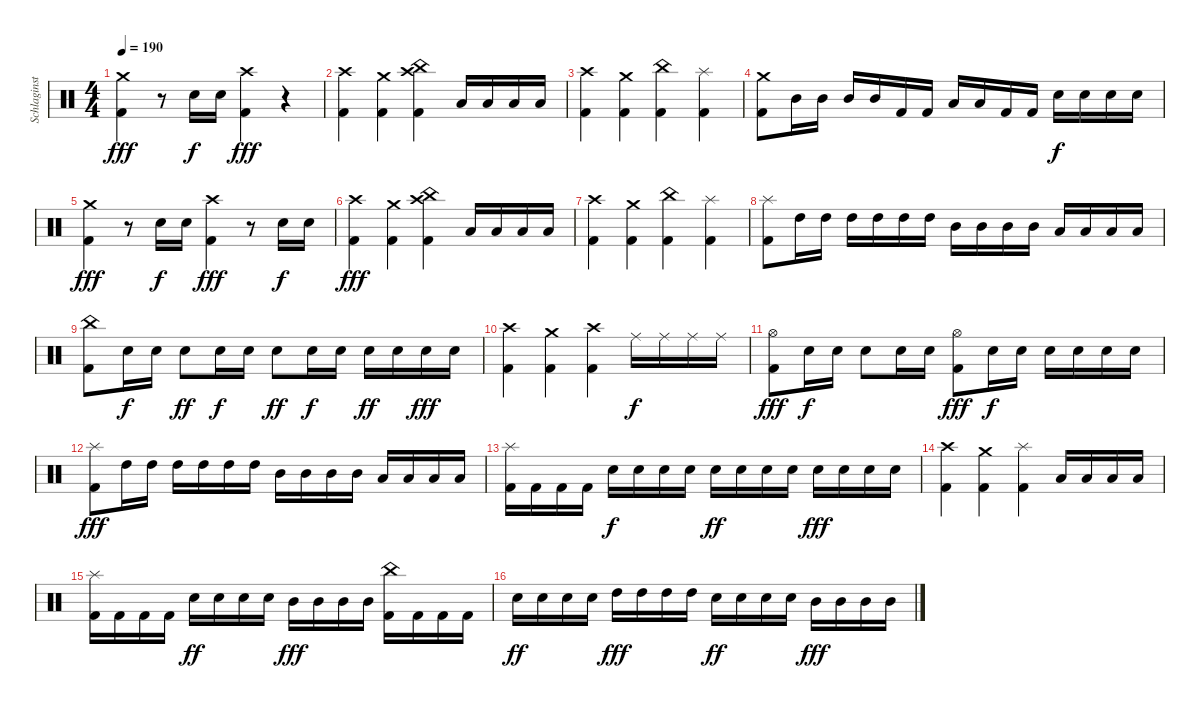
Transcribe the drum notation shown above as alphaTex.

\track ("Schlaginstrumente - Auswahl" "Schlaginst") {instrument percussion}
\staff {score}
\articulation defaults
\ts (4 4)
\tempo 190
\clef neutral
\ks c
("Crash medium (hit)" "Kick (hit) 2").4{dy fff} r.8 "Snare (hit) 2".16{dy f} "Snare (hit) 2".16 ("Crash high (hit)" "Kick (hit) 2").4{dy fff} r.4 |
("Crash high (hit)" "Kick (hit) 2").4 ("Crash medium (hit)" "Kick (hit) 2").4 ("Crash high (hit)" "China (hit)" "Kick (hit) 2").4 "Low Tom (hit)".16 "Low Tom (hit)".16 "Low Tom (hit)".16 "Low Tom (hit)".16 |
("Crash high (hit)" "Kick (hit) 2").4 ("Crash medium (hit)" "Kick (hit) 2").4 ("China (hit)" "Kick (hit) 2").4 ("Splash (hit)" "Kick (hit) 2").4 |
("Crash medium (hit)" "Kick (hit) 2").8 "Mid Tom (hit)".16 "Mid Tom (hit)".16 "Mid Tom (hit)".16 "Mid Tom (hit)".16 "Kick (hit) 2".16 "Kick (hit) 2".16 "Low Tom (hit)".16 "Low Tom (hit)".16 "Kick (hit) 2".16 "Kick (hit) 2".16 "Snare (hit) 2".16{dy f} "Snare (hit) 2".16 "Snare (hit) 2".16 "Snare (hit) 2".16 |
("Crash medium (hit)" "Kick (hit) 2").4{dy fff} r.8 "Snare (hit) 2".16{dy f} "Snare (hit) 2".16 ("Crash high (hit)" "Kick (hit) 2").4{dy fff} r.8 "Snare (hit) 2".16{dy f} "Snare (hit) 2".16 |
("Crash high (hit)" "Kick (hit) 2").4{dy fff} ("Crash medium (hit)" "Kick (hit) 2").4 ("Crash high (hit)" "China (hit)" "Kick (hit) 2").4 "Low Tom (hit)".16 "Low Tom (hit)".16 "Low Tom (hit)".16 "Low Tom (hit)".16 |
("Crash high (hit)" "Kick (hit) 2").4 ("Crash medium (hit)" "Kick (hit) 2").4 ("China (hit)" "Kick (hit) 2").4 ("Splash (hit)" "Kick (hit) 2").4 |
("Splash (hit)" "Kick (hit) 2").8 "High Tom (hit)".16 "High Tom (hit)".16 "High Tom (hit)".16 "High Tom (hit)".16 "High Tom (hit)".16 "High Tom (hit)".16 "Mid Tom (hit)".16 "Mid Tom (hit)".16 "Mid Tom (hit)".16 "Mid Tom (hit)".16 "Low Tom (hit)".16 "Low Tom (hit)".16 "Low Tom (hit)".16 "Low Tom (hit)".16 |
("China (hit)" "Kick (hit) 2").8 "Snare (hit) 2".16{dy f} "Snare (hit) 2".16 "Snare (hit) 2".8{dy ff} "Snare (hit) 2".16{dy f} "Snare (hit) 2".16 "Snare (hit) 2".8{dy ff} "Snare (hit) 2".16{dy f} "Snare (hit) 2".16 "Snare (hit) 2".16{dy ff} "Snare (hit) 2".16 "Snare (hit) 2".16{dy fff} "Snare (hit) 2".16 |
("Crash high (hit)" "Kick (hit) 2").4 ("Crash medium (hit)" "Kick (hit) 2").4 ("Crash high (hit)" "Kick (hit) 2").4 "Ride (middle)".16{dy f} "Ride (middle)".16 "Ride (middle)".16 "Ride (middle)".16 |
("Hi-Hat (open)" "Kick (hit) 2").8{dy fff} "Snare (hit) 2".16{dy f} "Snare (hit) 2".16 "Snare (hit) 2".8 "Snare (hit) 2".16 "Snare (hit) 2".16 ("Hi-Hat (open)" "Kick (hit) 2").8{dy fff} "Snare (hit) 2".16{dy f} "Snare (hit) 2".16 "Snare (hit) 2".16 "Snare (hit) 2".16 "Snare (hit) 2".16 "Snare (hit) 2".16 |
("Splash (hit)" "Kick (hit) 2").8{dy fff} "High Tom (hit)".16 "High Tom (hit)".16 "High Tom (hit)".16 "High Tom (hit)".16 "High Tom (hit)".16 "High Tom (hit)".16 "Mid Tom (hit)".16 "Mid Tom (hit)".16 "Mid Tom (hit)".16 "Mid Tom (hit)".16 "Low Tom (hit)".16 "Low Tom (hit)".16 "Low Tom (hit)".16 "Low Tom (hit)".16 |
("Splash (hit)" "Kick (hit) 2").16 "Kick (hit) 2".16 "Kick (hit) 2".16 "Kick (hit) 2".16 "Snare (hit) 2".16{dy f} "Snare (hit) 2".16 "Snare (hit) 2".16 "Snare (hit) 2".16 "Snare (hit) 2".16{dy ff} "Snare (hit) 2".16 "Snare (hit) 2".16 "Snare (hit) 2".16 "Snare (hit) 2".16{dy fff} "Snare (hit) 2".16 "Snare (hit) 2".16 "Snare (hit) 2".16 |
("Crash high (hit)" "Kick (hit) 2").4 ("Crash medium (hit)" "Kick (hit) 2").4 ("Splash (hit)" "Kick (hit) 2").4 "Low Tom (hit)".16 "Low Tom (hit)".16 "Low Tom (hit)".16 "Low Tom (hit)".16 |
("Splash (hit)" "Kick (hit) 2").16 "Kick (hit) 2".16 "Kick (hit) 2".16 "Kick (hit) 2".16 "Snare (hit) 2".16{dy ff} "Snare (hit) 2".16 "Snare (hit) 2".16 "Snare (hit) 2".16 "Mid Tom (hit)".16{dy fff} "Mid Tom (hit)".16 "Mid Tom (hit)".16 "Mid Tom (hit)".16 ("China (hit)" "Kick (hit) 2").16 "Kick (hit) 2".16 "Kick (hit) 2".16 "Kick (hit) 2".16 |
"Snare (hit) 2".16{dy ff} "Snare (hit) 2".16 "Snare (hit) 2".16 "Snare (hit) 2".16 "High Tom (hit)".16{dy fff} "High Tom (hit)".16 "High Tom (hit)".16 "High Tom (hit)".16 "Snare (hit) 2".16{dy ff} "Snare (hit) 2".16 "Snare (hit) 2".16 "Snare (hit) 2".16 "Mid Tom (hit)".16{dy fff} "Mid Tom (hit)".16 "Mid Tom (hit)".16 "Mid Tom (hit)".16
